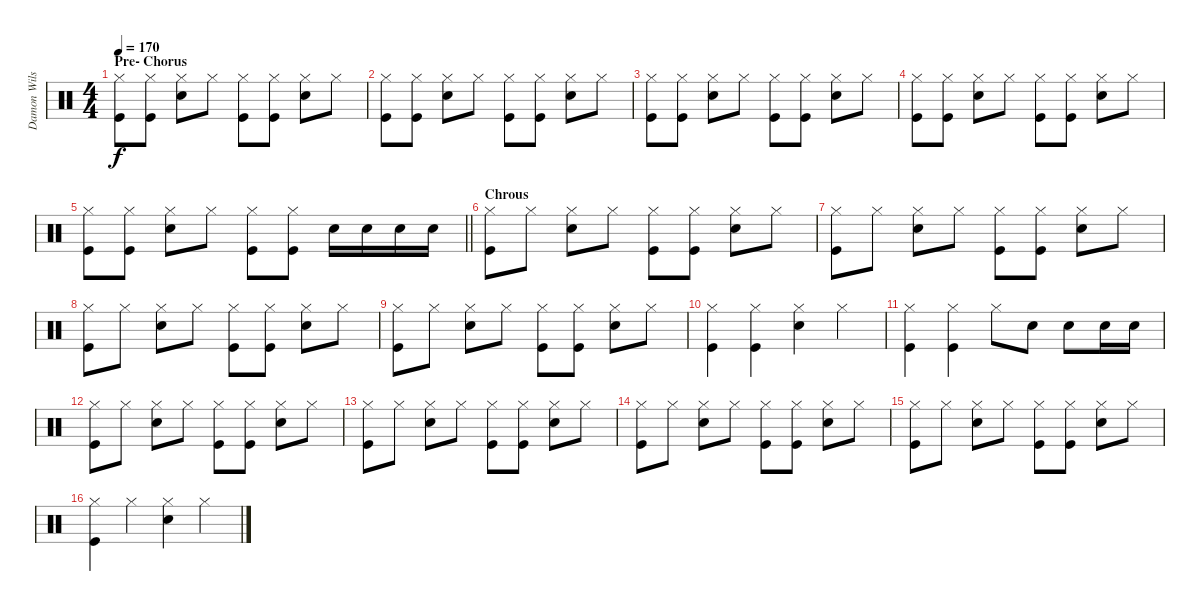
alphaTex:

\track ("Damon Wilson" "Damon Wils") {instrument percussion}
\staff {score}
\articulation defaults
\ts (4 4)
\section ("" "Pre- Chorus")
\tempo 170
\clef neutral
\ks c
("Hi-Hat (closed)" "Kick (hit)").8{dy f} ("Hi-Hat (closed)" "Kick (hit)").8 ("Hi-Hat (closed)" "Snare (hit) 2").8 "Hi-Hat (closed)".8 ("Hi-Hat (closed)" "Kick (hit)").8 ("Hi-Hat (closed)" "Kick (hit)").8 ("Hi-Hat (closed)" "Snare (hit) 2").8 "Hi-Hat (closed)".8 |
("Hi-Hat (closed)" "Kick (hit)").8 ("Hi-Hat (closed)" "Kick (hit)").8 ("Hi-Hat (closed)" "Snare (hit) 2").8 "Hi-Hat (closed)".8 ("Hi-Hat (closed)" "Kick (hit)").8 ("Hi-Hat (closed)" "Kick (hit)").8 ("Hi-Hat (closed)" "Snare (hit) 2").8 "Hi-Hat (closed)".8 |
("Hi-Hat (closed)" "Kick (hit)").8 ("Hi-Hat (closed)" "Kick (hit)").8 ("Hi-Hat (closed)" "Snare (hit) 2").8 "Hi-Hat (closed)".8 ("Hi-Hat (closed)" "Kick (hit)").8 ("Hi-Hat (closed)" "Kick (hit)").8 ("Hi-Hat (closed)" "Snare (hit) 2").8 "Hi-Hat (closed)".8 |
("Hi-Hat (closed)" "Kick (hit)").8 ("Hi-Hat (closed)" "Kick (hit)").8 ("Hi-Hat (closed)" "Snare (hit) 2").8 "Hi-Hat (closed)".8 ("Hi-Hat (closed)" "Kick (hit)").8 ("Hi-Hat (closed)" "Kick (hit)").8 ("Hi-Hat (closed)" "Snare (hit) 2").8 "Hi-Hat (closed)".8 |
\barLineRight lightlight
("Hi-Hat (closed)" "Kick (hit)").8 ("Hi-Hat (closed)" "Kick (hit)").8 ("Hi-Hat (closed)" "Snare (hit) 2").8 "Hi-Hat (closed)".8 ("Hi-Hat (closed)" "Kick (hit)").8 ("Hi-Hat (closed)" "Kick (hit)").8 "Snare (hit) 2".16 "Snare (hit) 2".16 "Snare (hit) 2".16 "Snare (hit) 2".16 |
\section ("" "Chrous")
("Hi-Hat (closed)" "Kick (hit)").8 "Hi-Hat (closed)".8 ("Hi-Hat (closed)" "Snare (hit) 2").8 "Hi-Hat (closed)".8 ("Hi-Hat (closed)" "Kick (hit)").8 ("Hi-Hat (closed)" "Kick (hit)").8 ("Hi-Hat (closed)" "Snare (hit) 2").8 "Hi-Hat (closed)".8 |
("Hi-Hat (closed)" "Kick (hit)").8 "Hi-Hat (closed)".8 ("Hi-Hat (closed)" "Snare (hit) 2").8 "Hi-Hat (closed)".8 ("Hi-Hat (closed)" "Kick (hit)").8 ("Hi-Hat (closed)" "Kick (hit)").8 ("Hi-Hat (closed)" "Snare (hit) 2").8 "Hi-Hat (closed)".8 |
("Hi-Hat (closed)" "Kick (hit)").8 "Hi-Hat (closed)".8 ("Hi-Hat (closed)" "Snare (hit) 2").8 "Hi-Hat (closed)".8 ("Hi-Hat (closed)" "Kick (hit)").8 ("Hi-Hat (closed)" "Kick (hit)").8 ("Hi-Hat (closed)" "Snare (hit) 2").8 "Hi-Hat (closed)".8 |
("Hi-Hat (closed)" "Kick (hit)").8 "Hi-Hat (closed)".8 ("Hi-Hat (closed)" "Snare (hit) 2").8 "Hi-Hat (closed)".8 ("Hi-Hat (closed)" "Kick (hit)").8 ("Hi-Hat (closed)" "Kick (hit)").8 ("Hi-Hat (closed)" "Snare (hit) 2").8 "Hi-Hat (closed)".8 |
("Hi-Hat (closed)" "Kick (hit)").4 ("Hi-Hat (closed)" "Kick (hit)").4 ("Hi-Hat (closed)" "Snare (hit) 2").4 "Hi-Hat (closed)".4 |
("Hi-Hat (closed)" "Kick (hit)").4 ("Hi-Hat (closed)" "Kick (hit)").4 "Hi-Hat (closed)".8 "Snare (hit) 2".8 "Snare (hit) 2".8 "Snare (hit) 2".16 "Snare (hit) 2".16 |
("Hi-Hat (closed)" "Kick (hit)").8 "Hi-Hat (closed)".8 ("Hi-Hat (closed)" "Snare (hit) 2").8 "Hi-Hat (closed)".8 ("Hi-Hat (closed)" "Kick (hit)").8 ("Hi-Hat (closed)" "Kick (hit)").8 ("Hi-Hat (closed)" "Snare (hit) 2").8 "Hi-Hat (closed)".8 |
("Hi-Hat (closed)" "Kick (hit)").8 "Hi-Hat (closed)".8 ("Hi-Hat (closed)" "Snare (hit) 2").8 "Hi-Hat (closed)".8 ("Hi-Hat (closed)" "Kick (hit)").8 ("Hi-Hat (closed)" "Kick (hit)").8 ("Hi-Hat (closed)" "Snare (hit) 2").8 "Hi-Hat (closed)".8 |
("Hi-Hat (closed)" "Kick (hit)").8 "Hi-Hat (closed)".8 ("Hi-Hat (closed)" "Snare (hit) 2").8 "Hi-Hat (closed)".8 ("Hi-Hat (closed)" "Kick (hit)").8 ("Hi-Hat (closed)" "Kick (hit)").8 ("Hi-Hat (closed)" "Snare (hit) 2").8 "Hi-Hat (closed)".8 |
("Hi-Hat (closed)" "Kick (hit)").8 "Hi-Hat (closed)".8 ("Hi-Hat (closed)" "Snare (hit) 2").8 "Hi-Hat (closed)".8 ("Hi-Hat (closed)" "Kick (hit)").8 ("Hi-Hat (closed)" "Kick (hit)").8 ("Hi-Hat (closed)" "Snare (hit) 2").8 "Hi-Hat (closed)".8 |
("Hi-Hat (closed)" "Kick (hit)").4 "Hi-Hat (closed)".4 ("Hi-Hat (closed)" "Snare (hit) 2").4 "Hi-Hat (closed)".4
